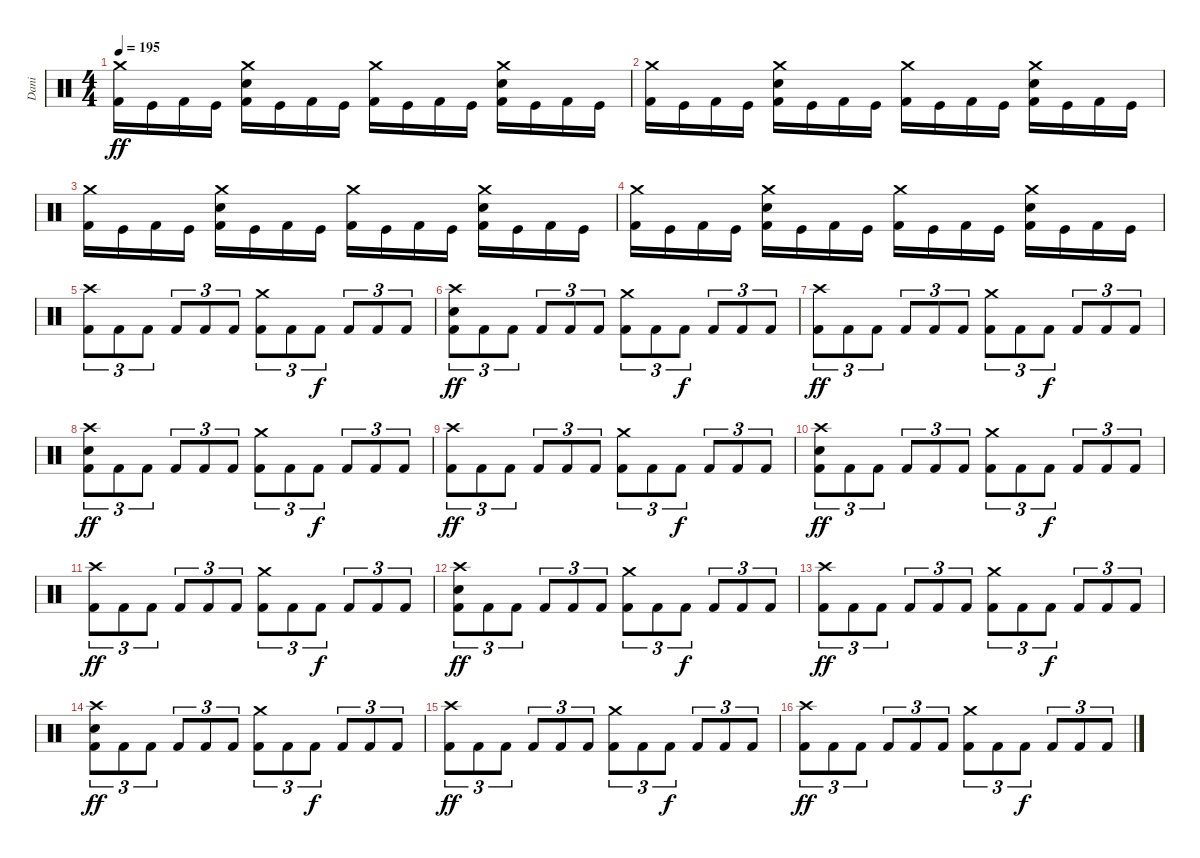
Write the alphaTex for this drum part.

\track ("Dani" "Dani") {instrument percussion}
\staff {score}
\articulation defaults
\ts (4 4)
\tempo 195
\clef neutral
\ks c
("Crash medium (hit)" "Kick (hit) 2").16{dy ff} "Kick (hit)".16 "Kick (hit) 2".16 "Kick (hit)".16 ("Crash medium (hit)" "Electric Snare (hit)" "Kick (hit) 2").16 "Kick (hit)".16 "Kick (hit) 2".16 "Kick (hit)".16 ("Crash medium (hit)" "Kick (hit) 2").16 "Kick (hit)".16 "Kick (hit) 2".16 "Kick (hit)".16 ("Crash medium (hit)" "Electric Snare (hit)" "Kick (hit) 2").16 "Kick (hit)".16 "Kick (hit) 2".16 "Kick (hit)".16 |
("Crash medium (hit)" "Kick (hit) 2").16 "Kick (hit)".16 "Kick (hit) 2".16 "Kick (hit)".16 ("Crash medium (hit)" "Electric Snare (hit)" "Kick (hit) 2").16 "Kick (hit)".16 "Kick (hit) 2".16 "Kick (hit)".16 ("Crash medium (hit)" "Kick (hit) 2").16 "Kick (hit)".16 "Kick (hit) 2".16 "Kick (hit)".16 ("Crash medium (hit)" "Electric Snare (hit)" "Kick (hit) 2").16 "Kick (hit)".16 "Kick (hit) 2".16 "Kick (hit)".16 |
("Crash medium (hit)" "Kick (hit) 2").16 "Kick (hit)".16 "Kick (hit) 2".16 "Kick (hit)".16 ("Crash medium (hit)" "Electric Snare (hit)" "Kick (hit) 2").16 "Kick (hit)".16 "Kick (hit) 2".16 "Kick (hit)".16 ("Crash medium (hit)" "Kick (hit) 2").16 "Kick (hit)".16 "Kick (hit) 2".16 "Kick (hit)".16 ("Crash medium (hit)" "Electric Snare (hit)" "Kick (hit) 2").16 "Kick (hit)".16 "Kick (hit) 2".16 "Kick (hit)".16 |
("Crash medium (hit)" "Kick (hit) 2").16 "Kick (hit)".16 "Kick (hit) 2".16 "Kick (hit)".16 ("Crash medium (hit)" "Electric Snare (hit)" "Kick (hit) 2").16 "Kick (hit)".16 "Kick (hit) 2".16 "Kick (hit)".16 ("Crash medium (hit)" "Kick (hit) 2").16 "Kick (hit)".16 "Kick (hit) 2".16 "Kick (hit)".16 ("Crash medium (hit)" "Electric Snare (hit)" "Kick (hit) 2").16 "Kick (hit)".16 "Kick (hit) 2".16 "Kick (hit)".16 |
("Crash high (hit)" "Kick (hit) 2").8{tu (3 2)} "Kick (hit) 2".8{tu (3 2)} "Kick (hit) 2".8{tu (3 2)} "Kick (hit) 2".8{tu (3 2)} "Kick (hit) 2".8{tu (3 2)} "Kick (hit) 2".8{tu (3 2)} ("Crash medium (hit)" "Kick (hit) 2").8{tu (3 2)} "Kick (hit) 2".8{tu (3 2)} "Kick (hit) 2".8{tu (3 2) dy f} "Kick (hit) 2".8{tu (3 2)} "Kick (hit) 2".8{tu (3 2)} "Kick (hit) 2".8{tu (3 2)} |
("Crash high (hit)" "Electric Snare (hit)" "Kick (hit) 2").8{tu (3 2) dy ff} "Kick (hit) 2".8{tu (3 2)} "Kick (hit) 2".8{tu (3 2)} "Kick (hit) 2".8{tu (3 2)} "Kick (hit) 2".8{tu (3 2)} "Kick (hit) 2".8{tu (3 2)} ("Crash medium (hit)" "Kick (hit) 2").8{tu (3 2)} "Kick (hit) 2".8{tu (3 2)} "Kick (hit) 2".8{tu (3 2) dy f} "Kick (hit) 2".8{tu (3 2)} "Kick (hit) 2".8{tu (3 2)} "Kick (hit) 2".8{tu (3 2)} |
("Crash high (hit)" "Kick (hit) 2").8{tu (3 2) dy ff} "Kick (hit) 2".8{tu (3 2)} "Kick (hit) 2".8{tu (3 2)} "Kick (hit) 2".8{tu (3 2)} "Kick (hit) 2".8{tu (3 2)} "Kick (hit) 2".8{tu (3 2)} ("Crash medium (hit)" "Kick (hit) 2").8{tu (3 2)} "Kick (hit) 2".8{tu (3 2)} "Kick (hit) 2".8{tu (3 2) dy f} "Kick (hit) 2".8{tu (3 2)} "Kick (hit) 2".8{tu (3 2)} "Kick (hit) 2".8{tu (3 2)} |
("Crash high (hit)" "Electric Snare (hit)" "Kick (hit) 2").8{tu (3 2) dy ff} "Kick (hit) 2".8{tu (3 2)} "Kick (hit) 2".8{tu (3 2)} "Kick (hit) 2".8{tu (3 2)} "Kick (hit) 2".8{tu (3 2)} "Kick (hit) 2".8{tu (3 2)} ("Crash medium (hit)" "Kick (hit) 2").8{tu (3 2)} "Kick (hit) 2".8{tu (3 2)} "Kick (hit) 2".8{tu (3 2) dy f} "Kick (hit) 2".8{tu (3 2)} "Kick (hit) 2".8{tu (3 2)} "Kick (hit) 2".8{tu (3 2)} |
("Crash high (hit)" "Kick (hit) 2").8{tu (3 2) dy ff} "Kick (hit) 2".8{tu (3 2)} "Kick (hit) 2".8{tu (3 2)} "Kick (hit) 2".8{tu (3 2)} "Kick (hit) 2".8{tu (3 2)} "Kick (hit) 2".8{tu (3 2)} ("Crash medium (hit)" "Kick (hit) 2").8{tu (3 2)} "Kick (hit) 2".8{tu (3 2)} "Kick (hit) 2".8{tu (3 2) dy f} "Kick (hit) 2".8{tu (3 2)} "Kick (hit) 2".8{tu (3 2)} "Kick (hit) 2".8{tu (3 2)} |
("Crash high (hit)" "Electric Snare (hit)" "Kick (hit) 2").8{tu (3 2) dy ff} "Kick (hit) 2".8{tu (3 2)} "Kick (hit) 2".8{tu (3 2)} "Kick (hit) 2".8{tu (3 2)} "Kick (hit) 2".8{tu (3 2)} "Kick (hit) 2".8{tu (3 2)} ("Crash medium (hit)" "Kick (hit) 2").8{tu (3 2)} "Kick (hit) 2".8{tu (3 2)} "Kick (hit) 2".8{tu (3 2) dy f} "Kick (hit) 2".8{tu (3 2)} "Kick (hit) 2".8{tu (3 2)} "Kick (hit) 2".8{tu (3 2)} |
("Crash high (hit)" "Kick (hit) 2").8{tu (3 2) dy ff} "Kick (hit) 2".8{tu (3 2)} "Kick (hit) 2".8{tu (3 2)} "Kick (hit) 2".8{tu (3 2)} "Kick (hit) 2".8{tu (3 2)} "Kick (hit) 2".8{tu (3 2)} ("Crash medium (hit)" "Kick (hit) 2").8{tu (3 2)} "Kick (hit) 2".8{tu (3 2)} "Kick (hit) 2".8{tu (3 2) dy f} "Kick (hit) 2".8{tu (3 2)} "Kick (hit) 2".8{tu (3 2)} "Kick (hit) 2".8{tu (3 2)} |
("Crash high (hit)" "Electric Snare (hit)" "Kick (hit) 2").8{tu (3 2) dy ff} "Kick (hit) 2".8{tu (3 2)} "Kick (hit) 2".8{tu (3 2)} "Kick (hit) 2".8{tu (3 2)} "Kick (hit) 2".8{tu (3 2)} "Kick (hit) 2".8{tu (3 2)} ("Crash medium (hit)" "Kick (hit) 2").8{tu (3 2)} "Kick (hit) 2".8{tu (3 2)} "Kick (hit) 2".8{tu (3 2) dy f} "Kick (hit) 2".8{tu (3 2)} "Kick (hit) 2".8{tu (3 2)} "Kick (hit) 2".8{tu (3 2)} |
("Crash high (hit)" "Kick (hit) 2").8{tu (3 2) dy ff} "Kick (hit) 2".8{tu (3 2)} "Kick (hit) 2".8{tu (3 2)} "Kick (hit) 2".8{tu (3 2)} "Kick (hit) 2".8{tu (3 2)} "Kick (hit) 2".8{tu (3 2)} ("Crash medium (hit)" "Kick (hit) 2").8{tu (3 2)} "Kick (hit) 2".8{tu (3 2)} "Kick (hit) 2".8{tu (3 2) dy f} "Kick (hit) 2".8{tu (3 2)} "Kick (hit) 2".8{tu (3 2)} "Kick (hit) 2".8{tu (3 2)} |
("Crash high (hit)" "Electric Snare (hit)" "Kick (hit) 2").8{tu (3 2) dy ff} "Kick (hit) 2".8{tu (3 2)} "Kick (hit) 2".8{tu (3 2)} "Kick (hit) 2".8{tu (3 2)} "Kick (hit) 2".8{tu (3 2)} "Kick (hit) 2".8{tu (3 2)} ("Crash medium (hit)" "Kick (hit) 2").8{tu (3 2)} "Kick (hit) 2".8{tu (3 2)} "Kick (hit) 2".8{tu (3 2) dy f} "Kick (hit) 2".8{tu (3 2)} "Kick (hit) 2".8{tu (3 2)} "Kick (hit) 2".8{tu (3 2)} |
("Crash high (hit)" "Kick (hit) 2").8{tu (3 2) dy ff} "Kick (hit) 2".8{tu (3 2)} "Kick (hit) 2".8{tu (3 2)} "Kick (hit) 2".8{tu (3 2)} "Kick (hit) 2".8{tu (3 2)} "Kick (hit) 2".8{tu (3 2)} ("Crash medium (hit)" "Kick (hit) 2").8{tu (3 2)} "Kick (hit) 2".8{tu (3 2)} "Kick (hit) 2".8{tu (3 2) dy f} "Kick (hit) 2".8{tu (3 2)} "Kick (hit) 2".8{tu (3 2)} "Kick (hit) 2".8{tu (3 2)} |
("Crash high (hit)" "Kick (hit) 2").8{tu (3 2) dy ff} "Kick (hit) 2".8{tu (3 2)} "Kick (hit) 2".8{tu (3 2)} "Kick (hit) 2".8{tu (3 2)} "Kick (hit) 2".8{tu (3 2)} "Kick (hit) 2".8{tu (3 2)} ("Crash medium (hit)" "Kick (hit) 2").8{tu (3 2)} "Kick (hit) 2".8{tu (3 2)} "Kick (hit) 2".8{tu (3 2) dy f} "Kick (hit) 2".8{tu (3 2)} "Kick (hit) 2".8{tu (3 2)} "Kick (hit) 2".8{tu (3 2)}
